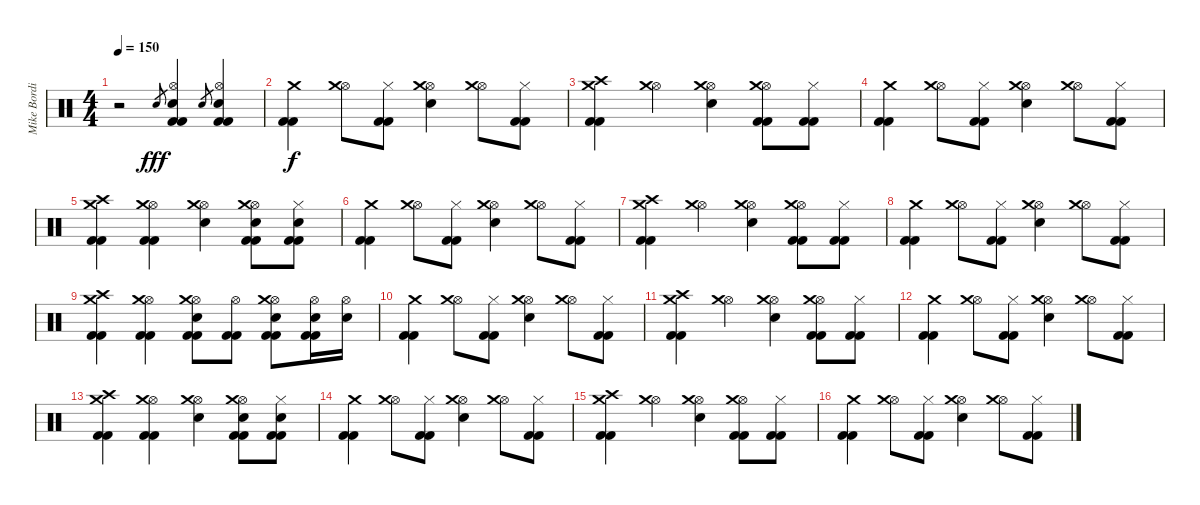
\track ("Mike Bordin" "Mike Bordi") {instrument percussion}
\staff {score}
\articulation defaults
\ts (4 4)
\tempo 150
\clef neutral
\ks c
r.2{dy f} "Electric Snare (hit)".8{gr dy fff} ("Hi-Hat (open)" "Electric Snare (hit)" "Kick (hit) 2" "Kick (hit) 2").4 "Electric Snare (hit)".8{gr} ("Hi-Hat (open)" "Electric Snare (hit)" "Kick (hit) 2" "Kick (hit) 2").4 |
("Crash medium (hit)" "Kick (hit) 2" "Kick (hit) 2").4{dy f} ("Hi-Hat (open)" "Crash medium (hit)").8 ("Hi-Hat (closed)" "Kick (hit) 2" "Kick (hit) 2").8 ("Hi-Hat (open)" "Crash medium (hit)" "Electric Snare (hit)").4 ("Hi-Hat (open)" "Crash medium (hit)").8 ("Hi-Hat (closed)" "Kick (hit) 2" "Kick (hit) 2").8 |
("Crash high (hit)" "Crash medium (hit)" "Kick (hit) 2" "Kick (hit) 2").4 ("Hi-Hat (open)" "Crash medium (hit)").4 ("Hi-Hat (open)" "Crash medium (hit)" "Electric Snare (hit)").4 ("Hi-Hat (open)" "Crash medium (hit)" "Kick (hit) 2" "Kick (hit) 2").8 ("Hi-Hat (closed)" "Kick (hit) 2" "Kick (hit) 2").8 |
("Crash medium (hit)" "Kick (hit) 2" "Kick (hit) 2").4 ("Hi-Hat (open)" "Crash medium (hit)").8 ("Hi-Hat (closed)" "Kick (hit) 2" "Kick (hit) 2").8 ("Hi-Hat (open)" "Crash medium (hit)" "Electric Snare (hit)").4 ("Hi-Hat (open)" "Crash medium (hit)").8 ("Hi-Hat (closed)" "Kick (hit) 2" "Kick (hit) 2").8 |
("Crash high (hit)" "Crash medium (hit)" "Kick (hit) 2" "Kick (hit) 2").4 ("Hi-Hat (open)" "Crash medium (hit)" "Kick (hit) 2" "Kick (hit) 2").4 ("Hi-Hat (open)" "Crash medium (hit)" "Electric Snare (hit)").4 ("Hi-Hat (open)" "Crash medium (hit)" "Electric Snare (hit)" "Kick (hit) 2" "Kick (hit) 2").8 ("Hi-Hat (closed)" "Electric Snare (hit)" "Kick (hit) 2" "Kick (hit) 2").8 |
("Crash medium (hit)" "Kick (hit) 2" "Kick (hit) 2").4 ("Hi-Hat (open)" "Crash medium (hit)").8 ("Hi-Hat (closed)" "Kick (hit) 2" "Kick (hit) 2").8 ("Hi-Hat (open)" "Crash medium (hit)" "Electric Snare (hit)").4 ("Hi-Hat (open)" "Crash medium (hit)").8 ("Hi-Hat (closed)" "Kick (hit) 2" "Kick (hit) 2").8 |
("Crash high (hit)" "Crash medium (hit)" "Kick (hit) 2" "Kick (hit) 2").4 ("Hi-Hat (open)" "Crash medium (hit)").4 ("Hi-Hat (open)" "Crash medium (hit)" "Electric Snare (hit)").4 ("Hi-Hat (open)" "Crash medium (hit)" "Kick (hit) 2" "Kick (hit) 2").8 ("Hi-Hat (closed)" "Kick (hit) 2" "Kick (hit) 2").8 |
("Crash medium (hit)" "Kick (hit) 2" "Kick (hit) 2").4 ("Hi-Hat (open)" "Crash medium (hit)").8 ("Hi-Hat (closed)" "Kick (hit) 2" "Kick (hit) 2").8 ("Hi-Hat (open)" "Crash medium (hit)" "Electric Snare (hit)").4 ("Hi-Hat (open)" "Crash medium (hit)").8 ("Hi-Hat (closed)" "Kick (hit) 2" "Kick (hit) 2").8 |
("Crash high (hit)" "Crash medium (hit)" "Kick (hit) 2" "Kick (hit) 2").4 ("Hi-Hat (open)" "Crash medium (hit)" "Kick (hit) 2" "Kick (hit) 2").4 ("Hi-Hat (open)" "Crash medium (hit)" "Electric Snare (hit)" "Kick (hit) 2" "Kick (hit) 2").8 ("Hi-Hat (open)" "Kick (hit) 2" "Kick (hit) 2").8 ("Hi-Hat (open)" "Crash medium (hit)" "Electric Snare (hit)" "Kick (hit) 2" "Kick (hit) 2").8 ("Hi-Hat (open)" "Electric Snare (hit)" "Kick (hit) 2" "Kick (hit) 2").16 ("Hi-Hat (open)" "Electric Snare (hit)").16 |
("Crash medium (hit)" "Kick (hit) 2" "Kick (hit) 2").4 ("Hi-Hat (open)" "Crash medium (hit)").8 ("Hi-Hat (closed)" "Kick (hit) 2" "Kick (hit) 2").8 ("Hi-Hat (open)" "Crash medium (hit)" "Electric Snare (hit)").4 ("Hi-Hat (open)" "Crash medium (hit)").8 ("Hi-Hat (closed)" "Kick (hit) 2" "Kick (hit) 2").8 |
("Crash high (hit)" "Crash medium (hit)" "Kick (hit) 2" "Kick (hit) 2").4 ("Hi-Hat (open)" "Crash medium (hit)").4 ("Hi-Hat (open)" "Crash medium (hit)" "Electric Snare (hit)").4 ("Hi-Hat (open)" "Crash medium (hit)" "Kick (hit) 2" "Kick (hit) 2").8 ("Hi-Hat (closed)" "Kick (hit) 2" "Kick (hit) 2").8 |
("Crash medium (hit)" "Kick (hit) 2" "Kick (hit) 2").4 ("Hi-Hat (open)" "Crash medium (hit)").8 ("Hi-Hat (closed)" "Kick (hit) 2" "Kick (hit) 2").8 ("Hi-Hat (open)" "Crash medium (hit)" "Electric Snare (hit)").4 ("Hi-Hat (open)" "Crash medium (hit)").8 ("Hi-Hat (closed)" "Kick (hit) 2" "Kick (hit) 2").8 |
("Crash high (hit)" "Crash medium (hit)" "Kick (hit) 2" "Kick (hit) 2").4 ("Hi-Hat (open)" "Crash medium (hit)" "Kick (hit) 2" "Kick (hit) 2").4 ("Hi-Hat (open)" "Crash medium (hit)" "Electric Snare (hit)").4 ("Hi-Hat (open)" "Crash medium (hit)" "Electric Snare (hit)" "Kick (hit) 2" "Kick (hit) 2").8 ("Hi-Hat (closed)" "Electric Snare (hit)" "Kick (hit) 2" "Kick (hit) 2").8 |
("Crash medium (hit)" "Kick (hit) 2" "Kick (hit) 2").4 ("Hi-Hat (open)" "Crash medium (hit)").8 ("Hi-Hat (closed)" "Kick (hit) 2" "Kick (hit) 2").8 ("Hi-Hat (open)" "Crash medium (hit)" "Electric Snare (hit)").4 ("Hi-Hat (open)" "Crash medium (hit)").8 ("Hi-Hat (closed)" "Kick (hit) 2" "Kick (hit) 2").8 |
("Crash high (hit)" "Crash medium (hit)" "Kick (hit) 2" "Kick (hit) 2").4 ("Hi-Hat (open)" "Crash medium (hit)").4 ("Hi-Hat (open)" "Crash medium (hit)" "Electric Snare (hit)").4 ("Hi-Hat (open)" "Crash medium (hit)" "Kick (hit) 2" "Kick (hit) 2").8 ("Hi-Hat (closed)" "Kick (hit) 2" "Kick (hit) 2").8 |
("Crash medium (hit)" "Kick (hit) 2" "Kick (hit) 2").4 ("Hi-Hat (open)" "Crash medium (hit)").8 ("Hi-Hat (closed)" "Kick (hit) 2" "Kick (hit) 2").8 ("Hi-Hat (open)" "Crash medium (hit)" "Electric Snare (hit)").4 ("Hi-Hat (open)" "Crash medium (hit)").8 ("Hi-Hat (closed)" "Kick (hit) 2" "Kick (hit) 2").8
